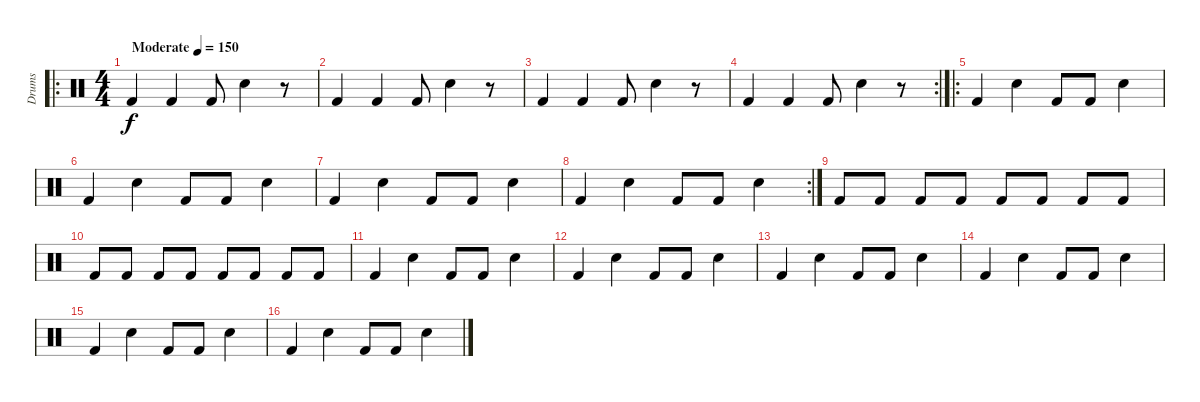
\track ("Drums" "Drums") {instrument percussion}
\staff {score}
\articulation defaults
\ro
\ts (4 4)
\tempo (150 "Moderate")
\clef neutral
\ks c "Kick (hit) 2".4{dy f} "Kick (hit) 2".4 "Kick (hit) 2".8 "Snare (hit) 2".4
r.8 |
"Kick (hit) 2".4 "Kick (hit) 2".4 "Kick (hit) 2".8 "Snare (hit) 2".4 r.8 |
"Kick (hit) 2".4 "Kick (hit) 2".4 "Kick (hit) 2".8 "Snare (hit) 2".4 r.8 |
\rc 2 "Kick (hit) 2".4 "Kick (hit) 2".4 "Kick (hit) 2".8 "Snare (hit) 2".4
r.8 |
\ro "Kick (hit) 2".4 "Snare (hit) 2".4 "Kick (hit) 2".8 "Kick (hit) 2".8 "Snare (hit) 2".4
|
"Kick (hit) 2".4 "Snare (hit) 2".4 "Kick (hit) 2".8 "Kick (hit) 2".8 "Snare (hit) 2".4 |
"Kick (hit) 2".4 "Snare (hit) 2".4 "Kick (hit) 2".8 "Kick (hit) 2".8 "Snare (hit) 2".4 |
\rc 2 "Kick (hit) 2".4 "Snare (hit) 2".4 "Kick (hit) 2".8 "Kick (hit) 2".8 "Snare (hit) 2".4
|
"Kick (hit) 2".8 "Kick (hit) 2".8 "Kick (hit) 2".8 "Kick (hit) 2".8 "Kick (hit) 2".8 "Kick (hit) 2".8 "Kick (hit) 2".8 "Kick (hit) 2".8 |
"Kick (hit) 2".8 "Kick (hit) 2".8 "Kick (hit) 2".8 "Kick (hit) 2".8 "Kick (hit) 2".8 "Kick (hit) 2".8 "Kick (hit) 2".8 "Kick (hit) 2".8 |
"Kick (hit) 2".4 "Snare (hit) 2".4 "Kick (hit) 2".8 "Kick (hit) 2".8 "Snare (hit) 2".4 |
"Kick (hit) 2".4 "Snare (hit) 2".4 "Kick (hit) 2".8 "Kick (hit) 2".8 "Snare (hit) 2".4 |
"Kick (hit) 2".4 "Snare (hit) 2".4 "Kick (hit) 2".8 "Kick (hit) 2".8 "Snare (hit) 2".4 |
"Kick (hit) 2".4 "Snare (hit) 2".4 "Kick (hit) 2".8 "Kick (hit) 2".8 "Snare (hit) 2".4 |
"Kick (hit) 2".4 "Snare (hit) 2".4 "Kick (hit) 2".8 "Kick (hit) 2".8 "Snare (hit) 2".4 |
"Kick (hit) 2".4 "Snare (hit) 2".4 "Kick (hit) 2".8 "Kick (hit) 2".8 "Snare (hit) 2".4
